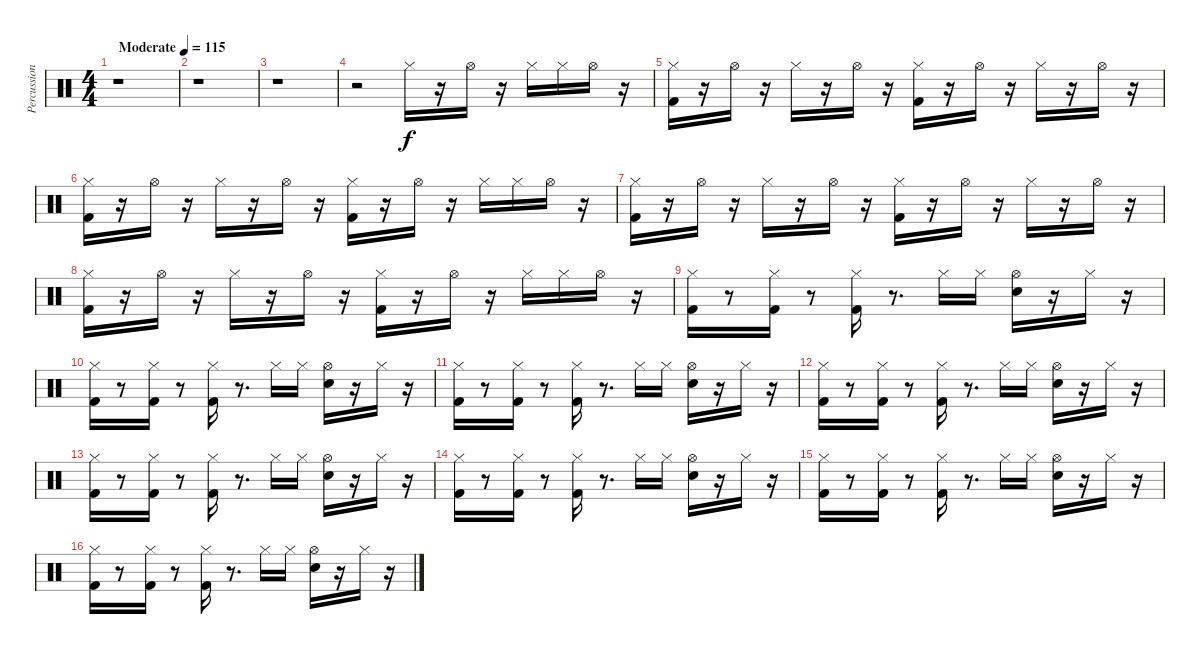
\track ("Percussion" "Percussion") {instrument percussion}
\staff {score}
\articulation defaults
\ts (4 4)
\tempo (115 "Moderate")
\clef neutral
\ks c
r.1{dy f} |
r.1 |
r.1 |
r.2 "Hi-Hat (closed)".16 r.16 "Hi-Hat (open)".16 r.16 "Hi-Hat (closed)".16 "Hi-Hat (closed)".16 "Hi-Hat (open)".16 r.16 |
("Kick (hit) 2" "Hi-Hat (closed)").16 r.16 "Hi-Hat (open)".16 r.16 "Hi-Hat (closed)".16 r.16 "Hi-Hat (open)".16 r.16 ("Kick (hit) 2" "Hi-Hat (closed)").16 r.16 "Hi-Hat (open)".16 r.16 "Hi-Hat (closed)".16 r.16 "Hi-Hat (open)".16 r.16 |
("Kick (hit) 2" "Hi-Hat (closed)").16 r.16 "Hi-Hat (open)".16 r.16 "Hi-Hat (closed)".16 r.16 "Hi-Hat (open)".16 r.16 ("Kick (hit) 2" "Hi-Hat (closed)").16 r.16 "Hi-Hat (open)".16 r.16 "Hi-Hat (closed)".16 "Hi-Hat (closed)".16 "Hi-Hat (open)".16 r.16 |
("Kick (hit) 2" "Hi-Hat (closed)").16 r.16 "Hi-Hat (open)".16 r.16 "Hi-Hat (closed)".16 r.16 "Hi-Hat (open)".16 r.16 ("Kick (hit) 2" "Hi-Hat (closed)").16 r.16 "Hi-Hat (open)".16 r.16 "Hi-Hat (closed)".16 r.16 "Hi-Hat (open)".16 r.16 |
("Kick (hit) 2" "Hi-Hat (closed)").16 r.16 "Hi-Hat (open)".16 r.16 "Hi-Hat (closed)".16 r.16 "Hi-Hat (open)".16 r.16 ("Kick (hit) 2" "Hi-Hat (closed)").16 r.16 "Hi-Hat (open)".16 r.16 "Hi-Hat (closed)".16 "Hi-Hat (closed)".16 "Hi-Hat (open)".16 r.16 |
("Kick (hit) 2" "Hi-Hat (closed)").16 r.8 ("Kick (hit) 2" "Hi-Hat (closed)").16 r.8 ("Kick (hit) 2" "Hi-Hat (closed)").16 r.8{d} "Hi-Hat (closed)".16 "Hi-Hat (closed)".16 ("Snare (hit) 2" "Hi-Hat (open)").16 r.16 "Hi-Hat (closed)".16 r.16 |
("Kick (hit) 2" "Hi-Hat (closed)").16 r.8 ("Kick (hit) 2" "Hi-Hat (closed)").16 r.8 ("Kick (hit) 2" "Hi-Hat (closed)").16 r.8{d} "Hi-Hat (closed)".16 "Hi-Hat (closed)".16 ("Snare (hit) 2" "Hi-Hat (open)").16 r.16 "Hi-Hat (closed)".16 r.16 |
("Kick (hit) 2" "Hi-Hat (closed)").16 r.8 ("Kick (hit) 2" "Hi-Hat (closed)").16 r.8 ("Kick (hit) 2" "Hi-Hat (closed)").16 r.8{d} "Hi-Hat (closed)".16 "Hi-Hat (closed)".16 ("Snare (hit) 2" "Hi-Hat (open)").16 r.16 "Hi-Hat (closed)".16 r.16 |
("Kick (hit) 2" "Hi-Hat (closed)").16 r.8 ("Kick (hit) 2" "Hi-Hat (closed)").16 r.8 ("Kick (hit) 2" "Hi-Hat (closed)").16 r.8{d} "Hi-Hat (closed)".16 "Hi-Hat (closed)".16 ("Snare (hit) 2" "Hi-Hat (open)").16 r.16 "Hi-Hat (closed)".16 r.16 |
("Kick (hit) 2" "Hi-Hat (closed)").16 r.8 ("Kick (hit) 2" "Hi-Hat (closed)").16 r.8 ("Kick (hit) 2" "Hi-Hat (closed)").16 r.8{d} "Hi-Hat (closed)".16 "Hi-Hat (closed)".16 ("Snare (hit) 2" "Hi-Hat (open)").16 r.16 "Hi-Hat (closed)".16 r.16 |
("Kick (hit) 2" "Hi-Hat (closed)").16 r.8 ("Kick (hit) 2" "Hi-Hat (closed)").16 r.8 ("Kick (hit) 2" "Hi-Hat (closed)").16 r.8{d} "Hi-Hat (closed)".16 "Hi-Hat (closed)".16 ("Snare (hit) 2" "Hi-Hat (open)").16 r.16 "Hi-Hat (closed)".16 r.16 |
("Kick (hit) 2" "Hi-Hat (closed)").16 r.8 ("Kick (hit) 2" "Hi-Hat (closed)").16 r.8 ("Kick (hit) 2" "Hi-Hat (closed)").16 r.8{d} "Hi-Hat (closed)".16 "Hi-Hat (closed)".16 ("Snare (hit) 2" "Hi-Hat (open)").16 r.16 "Hi-Hat (closed)".16 r.16 |
("Kick (hit) 2" "Hi-Hat (closed)").16 r.8 ("Kick (hit) 2" "Hi-Hat (closed)").16 r.8 ("Kick (hit) 2" "Hi-Hat (closed)").16 r.8{d} "Hi-Hat (closed)".16 "Hi-Hat (closed)".16 ("Snare (hit) 2" "Hi-Hat (open)").16 r.16 "Hi-Hat (closed)".16 r.16
